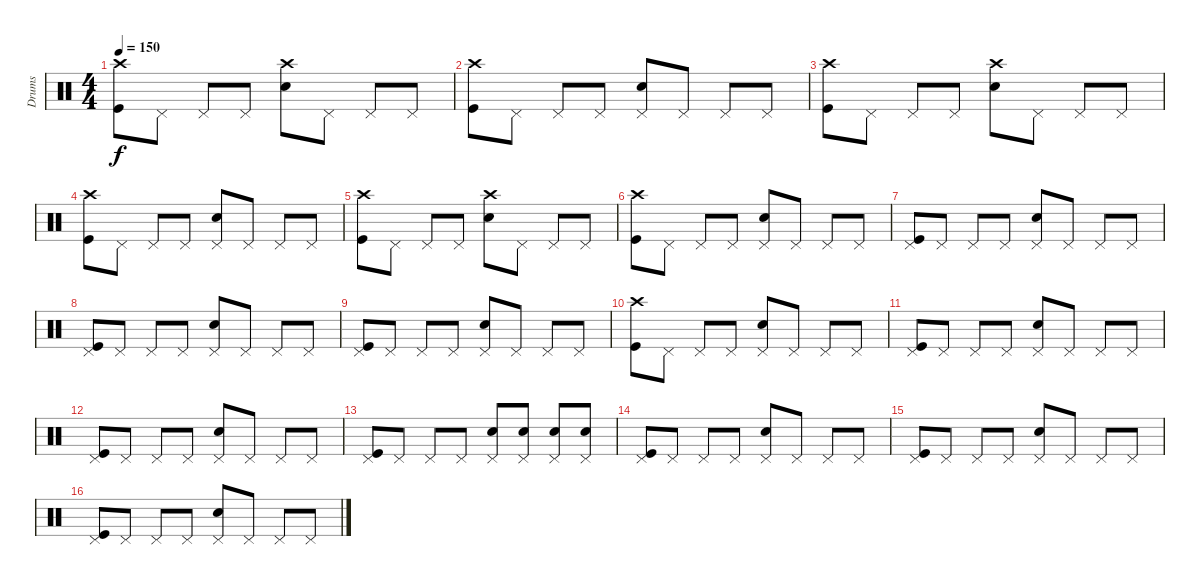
\track ("Drums" "Drums") {instrument percussion}
\staff {score}
\articulation defaults
\ts (4 4)
\tempo 150
\clef neutral
\ks c
("Crash high (hit)" "Kick (hit)").8{dy f} "Pedal Hi-Hat (hit)".8 "Pedal Hi-Hat (hit)".8 "Pedal Hi-Hat (hit)".8 ("Crash high (hit)" "Snare (hit) 2").8 "Pedal Hi-Hat (hit)".8 "Pedal Hi-Hat (hit)".8 "Pedal Hi-Hat (hit)".8 |
("Crash high (hit)" "Kick (hit)").8 "Pedal Hi-Hat (hit)".8 "Pedal Hi-Hat (hit)".8 "Pedal Hi-Hat (hit)".8 ("Pedal Hi-Hat (hit)" "Snare (hit) 2").8 "Pedal Hi-Hat (hit)".8 "Pedal Hi-Hat (hit)".8 "Pedal Hi-Hat (hit)".8 |
("Crash high (hit)" "Kick (hit)").8 "Pedal Hi-Hat (hit)".8 "Pedal Hi-Hat (hit)".8 "Pedal Hi-Hat (hit)".8 ("Crash high (hit)" "Snare (hit) 2").8 "Pedal Hi-Hat (hit)".8 "Pedal Hi-Hat (hit)".8 "Pedal Hi-Hat (hit)".8 |
("Crash high (hit)" "Kick (hit)").8 "Pedal Hi-Hat (hit)".8 "Pedal Hi-Hat (hit)".8 "Pedal Hi-Hat (hit)".8 ("Pedal Hi-Hat (hit)" "Snare (hit) 2").8 "Pedal Hi-Hat (hit)".8 "Pedal Hi-Hat (hit)".8 "Pedal Hi-Hat (hit)".8 |
("Crash high (hit)" "Kick (hit)").8 "Pedal Hi-Hat (hit)".8 "Pedal Hi-Hat (hit)".8 "Pedal Hi-Hat (hit)".8 ("Crash high (hit)" "Snare (hit) 2").8 "Pedal Hi-Hat (hit)".8 "Pedal Hi-Hat (hit)".8 "Pedal Hi-Hat (hit)".8 |
("Crash high (hit)" "Kick (hit)").8 "Pedal Hi-Hat (hit)".8 "Pedal Hi-Hat (hit)".8 "Pedal Hi-Hat (hit)".8 ("Pedal Hi-Hat (hit)" "Snare (hit) 2").8 "Pedal Hi-Hat (hit)".8 "Pedal Hi-Hat (hit)".8 "Pedal Hi-Hat (hit)".8 |
("Pedal Hi-Hat (hit)" "Kick (hit)").8 "Pedal Hi-Hat (hit)".8 "Pedal Hi-Hat (hit)".8 "Pedal Hi-Hat (hit)".8 ("Pedal Hi-Hat (hit)" "Snare (hit) 2").8 "Pedal Hi-Hat (hit)".8 "Pedal Hi-Hat (hit)".8 "Pedal Hi-Hat (hit)".8 |
("Pedal Hi-Hat (hit)" "Kick (hit)").8 "Pedal Hi-Hat (hit)".8 "Pedal Hi-Hat (hit)".8 "Pedal Hi-Hat (hit)".8 ("Pedal Hi-Hat (hit)" "Snare (hit) 2").8 "Pedal Hi-Hat (hit)".8 "Pedal Hi-Hat (hit)".8 "Pedal Hi-Hat (hit)".8 |
("Pedal Hi-Hat (hit)" "Kick (hit)").8 "Pedal Hi-Hat (hit)".8 "Pedal Hi-Hat (hit)".8 "Pedal Hi-Hat (hit)".8 ("Pedal Hi-Hat (hit)" "Snare (hit) 2").8 "Pedal Hi-Hat (hit)".8 "Pedal Hi-Hat (hit)".8 "Pedal Hi-Hat (hit)".8 |
("Crash high (hit)" "Kick (hit)").8 "Pedal Hi-Hat (hit)".8 "Pedal Hi-Hat (hit)".8 "Pedal Hi-Hat (hit)".8 ("Pedal Hi-Hat (hit)" "Snare (hit) 2").8 "Pedal Hi-Hat (hit)".8 "Pedal Hi-Hat (hit)".8 "Pedal Hi-Hat (hit)".8 |
("Pedal Hi-Hat (hit)" "Kick (hit)").8 "Pedal Hi-Hat (hit)".8 "Pedal Hi-Hat (hit)".8 "Pedal Hi-Hat (hit)".8 ("Pedal Hi-Hat (hit)" "Snare (hit) 2").8 "Pedal Hi-Hat (hit)".8 "Pedal Hi-Hat (hit)".8 "Pedal Hi-Hat (hit)".8 |
("Pedal Hi-Hat (hit)" "Kick (hit)").8 "Pedal Hi-Hat (hit)".8 "Pedal Hi-Hat (hit)".8 "Pedal Hi-Hat (hit)".8 ("Pedal Hi-Hat (hit)" "Snare (hit) 2").8 "Pedal Hi-Hat (hit)".8 "Pedal Hi-Hat (hit)".8 "Pedal Hi-Hat (hit)".8 |
("Pedal Hi-Hat (hit)" "Kick (hit)").8 "Pedal Hi-Hat (hit)".8 "Pedal Hi-Hat (hit)".8 "Pedal Hi-Hat (hit)".8 ("Pedal Hi-Hat (hit)" "Snare (hit) 2").8 ("Pedal Hi-Hat (hit)" "Snare (hit) 2").8 ("Pedal Hi-Hat (hit)" "Snare (hit) 2").8 ("Pedal Hi-Hat (hit)" "Snare (hit) 2").8 |
("Pedal Hi-Hat (hit)" "Kick (hit)").8 "Pedal Hi-Hat (hit)".8 "Pedal Hi-Hat (hit)".8 "Pedal Hi-Hat (hit)".8 ("Pedal Hi-Hat (hit)" "Snare (hit) 2").8 "Pedal Hi-Hat (hit)".8 "Pedal Hi-Hat (hit)".8 "Pedal Hi-Hat (hit)".8 |
("Pedal Hi-Hat (hit)" "Kick (hit)").8 "Pedal Hi-Hat (hit)".8 "Pedal Hi-Hat (hit)".8 "Pedal Hi-Hat (hit)".8 ("Pedal Hi-Hat (hit)" "Snare (hit) 2").8 "Pedal Hi-Hat (hit)".8 "Pedal Hi-Hat (hit)".8 "Pedal Hi-Hat (hit)".8 |
("Pedal Hi-Hat (hit)" "Kick (hit)").8 "Pedal Hi-Hat (hit)".8 "Pedal Hi-Hat (hit)".8 "Pedal Hi-Hat (hit)".8 ("Pedal Hi-Hat (hit)" "Snare (hit) 2").8 "Pedal Hi-Hat (hit)".8 "Pedal Hi-Hat (hit)".8 "Pedal Hi-Hat (hit)".8
